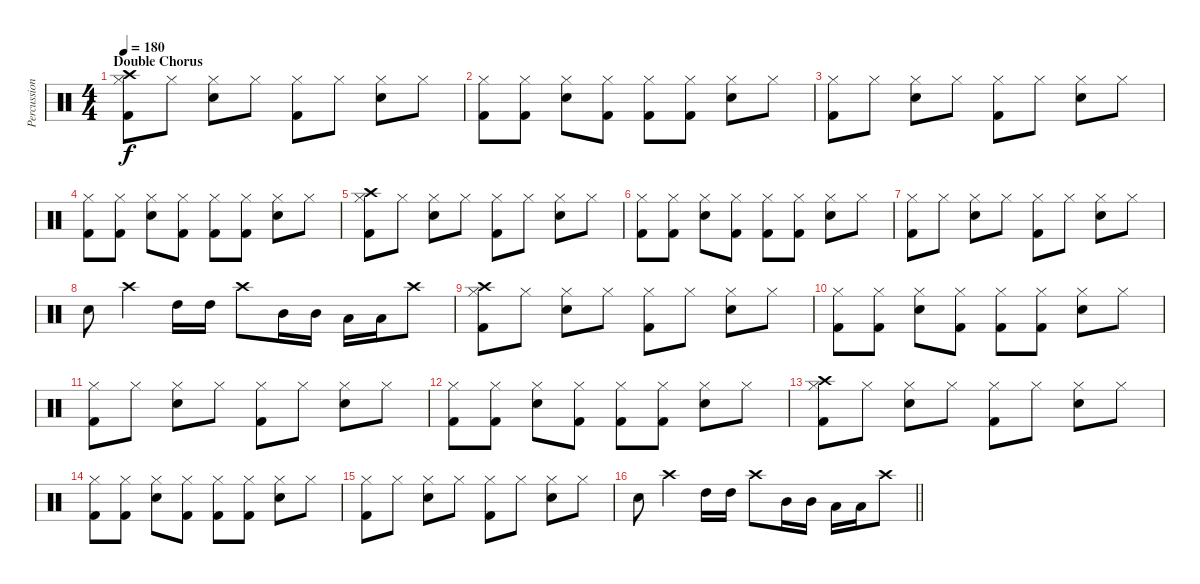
\track ("Percussion" "Percussion") {instrument percussion}
\staff {score}
\articulation defaults
\ts (4 4)
\section ("" "Double Chorus")
\tempo 180
\clef neutral
\ks c
("Crash high (hit)" "Hi-Hat (closed)" "Kick (hit) 2").8{dy f} "Hi-Hat (closed)".8 ("Hi-Hat (closed)" "Snare (hit) 2").8 "Hi-Hat (closed)".8 ("Hi-Hat (closed)" "Kick (hit) 2").8 "Hi-Hat (closed)".8 ("Hi-Hat (closed)" "Snare (hit) 2").8 "Hi-Hat (closed)".8 |
("Hi-Hat (closed)" "Kick (hit) 2").8 ("Hi-Hat (closed)" "Kick (hit) 2").8 ("Hi-Hat (closed)" "Snare (hit) 2").8 ("Hi-Hat (closed)" "Kick (hit) 2").8 ("Hi-Hat (closed)" "Kick (hit) 2").8 ("Hi-Hat (closed)" "Kick (hit) 2").8 ("Hi-Hat (closed)" "Snare (hit) 2").8 "Hi-Hat (closed)".8 |
("Hi-Hat (closed)" "Kick (hit) 2").8 "Hi-Hat (closed)".8 ("Hi-Hat (closed)" "Snare (hit) 2").8 "Hi-Hat (closed)".8 ("Hi-Hat (closed)" "Kick (hit) 2").8 "Hi-Hat (closed)".8 ("Hi-Hat (closed)" "Snare (hit) 2").8 "Hi-Hat (closed)".8 |
("Hi-Hat (closed)" "Kick (hit) 2").8 ("Hi-Hat (closed)" "Kick (hit) 2").8 ("Hi-Hat (closed)" "Snare (hit) 2").8 ("Hi-Hat (closed)" "Kick (hit) 2").8 ("Hi-Hat (closed)" "Kick (hit) 2").8 ("Hi-Hat (closed)" "Kick (hit) 2").8 ("Hi-Hat (closed)" "Snare (hit) 2").8 "Hi-Hat (closed)".8 |
("Crash high (hit)" "Hi-Hat (closed)" "Kick (hit) 2").8 "Hi-Hat (closed)".8 ("Hi-Hat (closed)" "Snare (hit) 2").8 "Hi-Hat (closed)".8 ("Hi-Hat (closed)" "Kick (hit) 2").8 "Hi-Hat (closed)".8 ("Hi-Hat (closed)" "Snare (hit) 2").8 "Hi-Hat (closed)".8 |
("Hi-Hat (closed)" "Kick (hit) 2").8 ("Hi-Hat (closed)" "Kick (hit) 2").8 ("Hi-Hat (closed)" "Snare (hit) 2").8 ("Hi-Hat (closed)" "Kick (hit) 2").8 ("Hi-Hat (closed)" "Kick (hit) 2").8 ("Hi-Hat (closed)" "Kick (hit) 2").8 ("Hi-Hat (closed)" "Snare (hit) 2").8 "Hi-Hat (closed)".8 |
("Hi-Hat (closed)" "Kick (hit) 2").8 "Hi-Hat (closed)".8 ("Hi-Hat (closed)" "Snare (hit) 2").8 "Hi-Hat (closed)".8 ("Hi-Hat (closed)" "Kick (hit) 2").8 "Hi-Hat (closed)".8 ("Hi-Hat (closed)" "Snare (hit) 2").8 "Hi-Hat (closed)".8 |
"Snare (hit) 2".8 "Crash high (hit)".4 "High Tom (hit)".16 "High Tom (hit)".16 "Crash high (hit)".8 "Mid Tom (hit)".16 "Mid Tom (hit)".16 "Low Tom (hit)".16 "Low Tom (hit)".16 "Crash high (hit)".8 |
("Crash high (hit)" "Hi-Hat (closed)" "Kick (hit) 2").8 "Hi-Hat (closed)".8 ("Hi-Hat (closed)" "Snare (hit) 2").8 "Hi-Hat (closed)".8 ("Hi-Hat (closed)" "Kick (hit) 2").8 "Hi-Hat (closed)".8 ("Hi-Hat (closed)" "Snare (hit) 2").8 "Hi-Hat (closed)".8 |
("Hi-Hat (closed)" "Kick (hit) 2").8 ("Hi-Hat (closed)" "Kick (hit) 2").8 ("Hi-Hat (closed)" "Snare (hit) 2").8 ("Hi-Hat (closed)" "Kick (hit) 2").8 ("Hi-Hat (closed)" "Kick (hit) 2").8 ("Hi-Hat (closed)" "Kick (hit) 2").8 ("Hi-Hat (closed)" "Snare (hit) 2").8 "Hi-Hat (closed)".8 |
("Hi-Hat (closed)" "Kick (hit) 2").8 "Hi-Hat (closed)".8 ("Hi-Hat (closed)" "Snare (hit) 2").8 "Hi-Hat (closed)".8 ("Hi-Hat (closed)" "Kick (hit) 2").8 "Hi-Hat (closed)".8 ("Hi-Hat (closed)" "Snare (hit) 2").8 "Hi-Hat (closed)".8 |
("Hi-Hat (closed)" "Kick (hit) 2").8 ("Hi-Hat (closed)" "Kick (hit) 2").8 ("Hi-Hat (closed)" "Snare (hit) 2").8 ("Hi-Hat (closed)" "Kick (hit) 2").8 ("Hi-Hat (closed)" "Kick (hit) 2").8 ("Hi-Hat (closed)" "Kick (hit) 2").8 ("Hi-Hat (closed)" "Snare (hit) 2").8 "Hi-Hat (closed)".8 |
("Crash high (hit)" "Hi-Hat (closed)" "Kick (hit) 2").8 "Hi-Hat (closed)".8 ("Hi-Hat (closed)" "Snare (hit) 2").8 "Hi-Hat (closed)".8 ("Hi-Hat (closed)" "Kick (hit) 2").8 "Hi-Hat (closed)".8 ("Hi-Hat (closed)" "Snare (hit) 2").8 "Hi-Hat (closed)".8 |
("Hi-Hat (closed)" "Kick (hit) 2").8 ("Hi-Hat (closed)" "Kick (hit) 2").8 ("Hi-Hat (closed)" "Snare (hit) 2").8 ("Hi-Hat (closed)" "Kick (hit) 2").8 ("Hi-Hat (closed)" "Kick (hit) 2").8 ("Hi-Hat (closed)" "Kick (hit) 2").8 ("Hi-Hat (closed)" "Snare (hit) 2").8 "Hi-Hat (closed)".8 |
("Hi-Hat (closed)" "Kick (hit) 2").8 "Hi-Hat (closed)".8 ("Hi-Hat (closed)" "Snare (hit) 2").8 "Hi-Hat (closed)".8 ("Hi-Hat (closed)" "Kick (hit) 2").8 "Hi-Hat (closed)".8 ("Hi-Hat (closed)" "Snare (hit) 2").8 "Hi-Hat (closed)".8 |
\barLineRight lightlight "Snare (hit) 2".8 "Crash high (hit)".4 "High Tom (hit)".16 "High Tom (hit)".16 "Crash high (hit)".8 "Mid Tom (hit)".16 "Mid Tom (hit)".16 "Low Tom (hit)".16 "Low Tom (hit)".16 "Crash high (hit)".8
